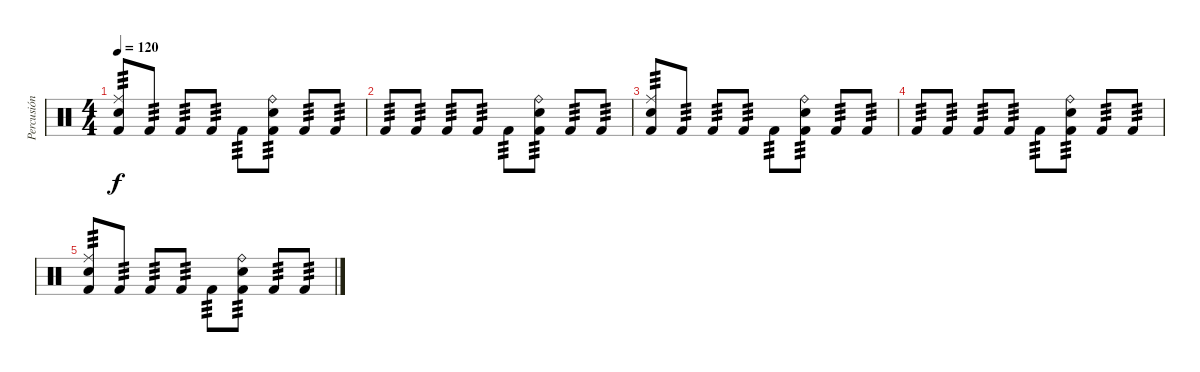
\track ("Percusión" "Percusión") {instrument percussion}
\staff {score}
\articulation defaults
\ts (4 4)
\tempo 120
\clef neutral
\ks c
("Electric Snare (hit)" "Ride (middle)" "Kick (hit) 2").8{tp 3 dy f volume 10} "Kick (hit) 2".8{tp 3} "Kick (hit) 2".8{tp 3} "Kick (hit) 2".8{tp 3} "Kick (hit) 2".8{tp 3} ("Kick (hit) 2" "Ride (bell)" "Electric Snare (hit)").8{tp 3} "Kick (hit) 2".8{tp 3} "Kick (hit) 2".8{tp 3 volume 8} |
"Kick (hit) 2".8{tp 3} "Kick (hit) 2".8{tp 3} "Kick (hit) 2".8{tp 3} "Kick (hit) 2".8{tp 3} "Kick (hit) 2".8{tp 3} ("Kick (hit) 2" "Ride (bell)" "Electric Snare (hit)").8{tp 3} "Kick (hit) 2".8{tp 3} "Kick (hit) 2".8{tp 3} |
("Electric Snare (hit)" "Ride (middle)" "Kick (hit) 2").8{tp 3 volume 8} "Kick (hit) 2".8{tp 3} "Kick (hit) 2".8{tp 3} "Kick (hit) 2".8{tp 3} "Kick (hit) 2".8{tp 3} ("Kick (hit) 2" "Ride (bell)" "Electric Snare (hit)").8{tp 3} "Kick (hit) 2".8{tp 3} "Kick (hit) 2".8{tp 3 volume 6} |
"Kick (hit) 2".8{tp 3} "Kick (hit) 2".8{tp 3} "Kick (hit) 2".8{tp 3} "Kick (hit) 2".8{tp 3} "Kick (hit) 2".8{tp 3} ("Kick (hit) 2" "Ride (bell)" "Electric Snare (hit)").8{tp 3} "Kick (hit) 2".8{tp 3} "Kick (hit) 2".8{tp 3} |
("Electric Snare (hit)" "Ride (middle)" "Kick (hit) 2").8{tp 3 volume 3} "Kick (hit) 2".8{tp 3} "Kick (hit) 2".8{tp 3} "Kick (hit) 2".8{tp 3} "Kick (hit) 2".8{tp 3} ("Kick (hit) 2" "Ride (bell)" "Electric Snare (hit)").8{tp 3} "Kick (hit) 2".8{tp 3} "Kick (hit) 2".8{tp 3 volume 2}
